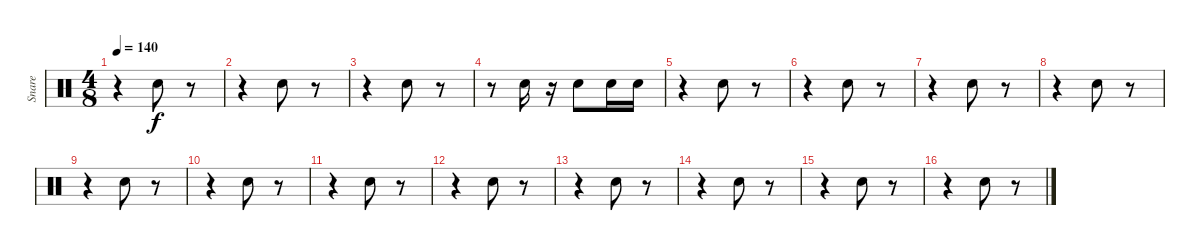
\track ("Snare" "Snare") {instrument percussion}
\staff {score}
\articulation defaults
\ts (4 8)
\tempo 140
\clef neutral
\ks c
r.4{dy f} "Snare (hit) 2".8 r.8 |
r.4 "Snare (hit) 2".8 r.8 |
r.4 "Snare (hit) 2".8 r.8 |
r.8 "Snare (hit) 2".16 r.16 "Snare (hit) 2".8 "Snare (hit) 2".16 "Snare (hit) 2".16 |
r.4 "Snare (hit) 2".8 r.8 |
r.4 "Snare (hit) 2".8 r.8 |
r.4 "Snare (hit) 2".8 r.8 |
r.4 "Snare (hit) 2".8 r.8 |
r.4 "Snare (hit) 2".8 r.8 |
r.4 "Snare (hit) 2".8 r.8 |
r.4 "Snare (hit) 2".8 r.8 |
r.4 "Snare (hit) 2".8 r.8 |
r.4 "Snare (hit) 2".8 r.8 |
r.4 "Snare (hit) 2".8 r.8 |
r.4 "Snare (hit) 2".8 r.8 |
r.4 "Snare (hit) 2".8 r.8
